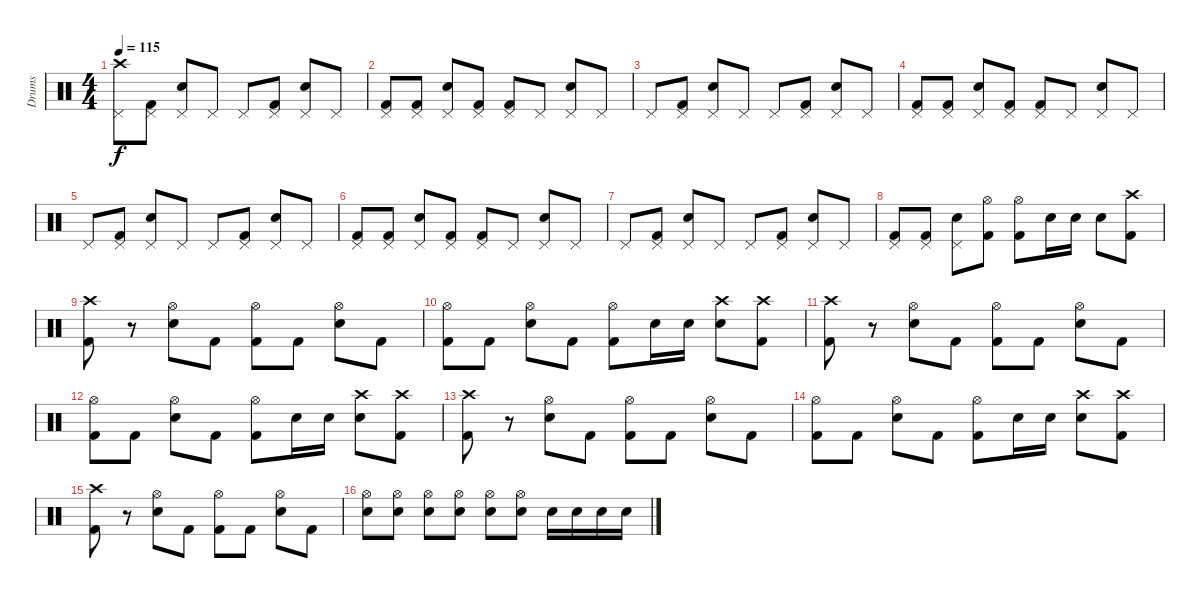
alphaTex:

\track ("Drums" "Drums") {instrument percussion}
\staff {score}
\articulation defaults
\ts (4 4)
\tempo 115
\clef neutral
\ks c
("Crash high (hit)" "Pedal Hi-Hat (hit)").8{dy f} ("Pedal Hi-Hat (hit)" "Kick (hit) 2").8 ("Pedal Hi-Hat (hit)" "Snare (hit) 2").8 "Pedal Hi-Hat (hit)".8 "Pedal Hi-Hat (hit)".8 ("Pedal Hi-Hat (hit)" "Kick (hit) 2").8 ("Pedal Hi-Hat (hit)" "Snare (hit) 2").8 "Pedal Hi-Hat (hit)".8 |
("Pedal Hi-Hat (hit)" "Kick (hit) 2").8 ("Pedal Hi-Hat (hit)" "Kick (hit) 2").8 ("Pedal Hi-Hat (hit)" "Snare (hit) 2").8 ("Pedal Hi-Hat (hit)" "Kick (hit) 2").8 ("Pedal Hi-Hat (hit)" "Kick (hit) 2").8 "Pedal Hi-Hat (hit)".8 ("Pedal Hi-Hat (hit)" "Snare (hit) 2").8 "Pedal Hi-Hat (hit)".8 |
"Pedal Hi-Hat (hit)".8 ("Pedal Hi-Hat (hit)" "Kick (hit) 2").8 ("Pedal Hi-Hat (hit)" "Snare (hit) 2").8 "Pedal Hi-Hat (hit)".8 "Pedal Hi-Hat (hit)".8 ("Pedal Hi-Hat (hit)" "Kick (hit) 2").8 ("Pedal Hi-Hat (hit)" "Snare (hit) 2").8 "Pedal Hi-Hat (hit)".8 |
("Pedal Hi-Hat (hit)" "Kick (hit) 2").8 ("Pedal Hi-Hat (hit)" "Kick (hit) 2").8 ("Pedal Hi-Hat (hit)" "Snare (hit) 2").8 ("Pedal Hi-Hat (hit)" "Kick (hit) 2").8 ("Pedal Hi-Hat (hit)" "Kick (hit) 2").8 "Pedal Hi-Hat (hit)".8 ("Pedal Hi-Hat (hit)" "Snare (hit) 2").8 "Pedal Hi-Hat (hit)".8 |
"Pedal Hi-Hat (hit)".8 ("Pedal Hi-Hat (hit)" "Kick (hit) 2").8 ("Pedal Hi-Hat (hit)" "Snare (hit) 2").8 "Pedal Hi-Hat (hit)".8 "Pedal Hi-Hat (hit)".8 ("Pedal Hi-Hat (hit)" "Kick (hit) 2").8 ("Pedal Hi-Hat (hit)" "Snare (hit) 2").8 "Pedal Hi-Hat (hit)".8 |
("Pedal Hi-Hat (hit)" "Kick (hit) 2").8 ("Pedal Hi-Hat (hit)" "Kick (hit) 2").8 ("Pedal Hi-Hat (hit)" "Snare (hit) 2").8 ("Pedal Hi-Hat (hit)" "Kick (hit) 2").8 ("Pedal Hi-Hat (hit)" "Kick (hit) 2").8 "Pedal Hi-Hat (hit)".8 ("Pedal Hi-Hat (hit)" "Snare (hit) 2").8 "Pedal Hi-Hat (hit)".8 |
"Pedal Hi-Hat (hit)".8 ("Pedal Hi-Hat (hit)" "Kick (hit) 2").8 ("Pedal Hi-Hat (hit)" "Snare (hit) 2").8 "Pedal Hi-Hat (hit)".8 "Pedal Hi-Hat (hit)".8 ("Pedal Hi-Hat (hit)" "Kick (hit) 2").8 ("Pedal Hi-Hat (hit)" "Snare (hit) 2").8 "Pedal Hi-Hat (hit)".8 |
("Pedal Hi-Hat (hit)" "Kick (hit) 2").8 ("Pedal Hi-Hat (hit)" "Kick (hit) 2").8 ("Pedal Hi-Hat (hit)" "Snare (hit) 2").8 ("Hi-Hat (open)" "Kick (hit) 2").8 ("Hi-Hat (open)" "Kick (hit) 2").8 "Snare (hit) 2".16 "Snare (hit) 2".16 "Snare (hit) 2".8 ("Crash high (hit)" "Kick (hit) 2").8 |
("Crash high (hit)" "Kick (hit) 2").8 r.8 ("Hi-Hat (open)" "Snare (hit) 2").8 "Kick (hit) 2".8 ("Hi-Hat (open)" "Kick (hit) 2").8 "Kick (hit) 2".8 ("Hi-Hat (open)" "Snare (hit) 2").8 "Kick (hit) 2".8 |
("Hi-Hat (open)" "Kick (hit) 2").8 "Kick (hit) 2".8 ("Hi-Hat (open)" "Snare (hit) 2").8 "Kick (hit) 2".8 ("Hi-Hat (open)" "Kick (hit) 2").8 "Snare (hit) 2".16 "Snare (hit) 2".16 ("Crash high (hit)" "Snare (hit) 2").8 ("Crash high (hit)" "Kick (hit) 2").8 |
("Crash high (hit)" "Kick (hit) 2").8 r.8 ("Hi-Hat (open)" "Snare (hit) 2").8 "Kick (hit) 2".8 ("Hi-Hat (open)" "Kick (hit) 2").8 "Kick (hit) 2".8 ("Hi-Hat (open)" "Snare (hit) 2").8 "Kick (hit) 2".8 |
("Hi-Hat (open)" "Kick (hit) 2").8 "Kick (hit) 2".8 ("Hi-Hat (open)" "Snare (hit) 2").8 "Kick (hit) 2".8 ("Hi-Hat (open)" "Kick (hit) 2").8 "Snare (hit) 2".16 "Snare (hit) 2".16 ("Crash high (hit)" "Snare (hit) 2").8 ("Crash high (hit)" "Kick (hit) 2").8 |
("Crash high (hit)" "Kick (hit) 2").8 r.8 ("Hi-Hat (open)" "Snare (hit) 2").8 "Kick (hit) 2".8 ("Hi-Hat (open)" "Kick (hit) 2").8 "Kick (hit) 2".8 ("Hi-Hat (open)" "Snare (hit) 2").8 "Kick (hit) 2".8 |
("Hi-Hat (open)" "Kick (hit) 2").8 "Kick (hit) 2".8 ("Hi-Hat (open)" "Snare (hit) 2").8 "Kick (hit) 2".8 ("Hi-Hat (open)" "Kick (hit) 2").8 "Snare (hit) 2".16 "Snare (hit) 2".16 ("Crash high (hit)" "Snare (hit) 2").8 ("Crash high (hit)" "Kick (hit) 2").8 |
("Crash high (hit)" "Kick (hit) 2").8 r.8 ("Hi-Hat (open)" "Snare (hit) 2").8 "Kick (hit) 2".8 ("Hi-Hat (open)" "Kick (hit) 2").8 "Kick (hit) 2".8 ("Hi-Hat (open)" "Snare (hit) 2").8 "Kick (hit) 2".8 |
("Hi-Hat (open)" "Snare (hit) 2").8 ("Hi-Hat (open)" "Snare (hit) 2").8 ("Hi-Hat (open)" "Snare (hit) 2").8 ("Hi-Hat (open)" "Snare (hit) 2").8 ("Hi-Hat (open)" "Snare (hit) 2").8 ("Hi-Hat (open)" "Snare (hit) 2").8 "Snare (hit) 2".16 "Snare (hit) 2".16 "Snare (hit) 2".16 "Snare (hit) 2".16
